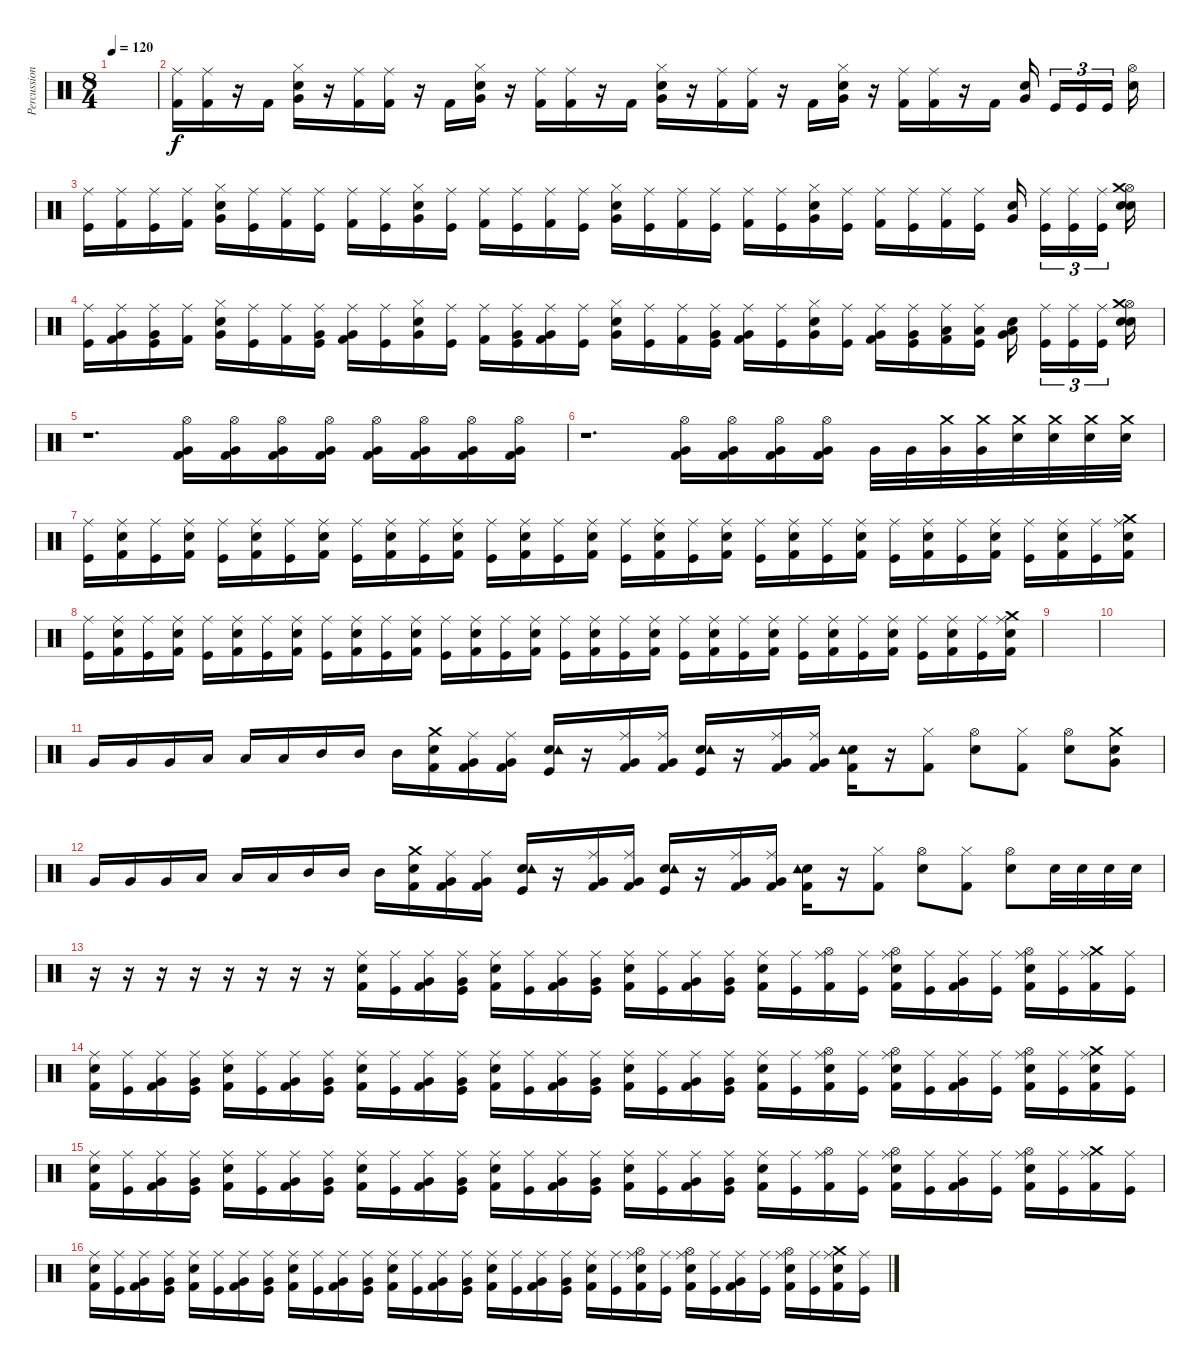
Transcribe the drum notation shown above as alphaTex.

\track ("Percussions" "Percussion") {instrument percussion}
\staff {score}
\articulation defaults
\ts (8 4)
\tempo 120
\clef neutral
\ks c
|
("Kick (hit) 2" "Ride (middle)").16 ("Kick (hit) 2" "Ride (middle)").16 r.16 "Kick (hit) 2".16 ("Electric Snare (hit)" "Very Low Tom (hit)" "Hi-Hat (closed)").16 r.16 ("Kick (hit) 2" "Ride (middle)").16 ("Kick (hit) 2" "Ride (middle)").16 r.16 "Kick (hit) 2".16 ("Electric Snare (hit)" "Very Low Tom (hit)" "Hi-Hat (closed)").16 r.16 ("Kick (hit) 2" "Ride (middle)").16 ("Kick (hit) 2" "Ride (middle)").16 r.16 "Kick (hit) 2".16 ("Electric Snare (hit)" "Very Low Tom (hit)" "Hi-Hat (closed)").16 r.16 ("Kick (hit) 2" "Ride (middle)").16 ("Kick (hit) 2" "Ride (middle)").16 r.16 "Kick (hit) 2".16 ("Electric Snare (hit)" "Very Low Tom (hit)" "Hi-Hat (closed)").16 r.16 ("Kick (hit) 2" "Ride (middle)").16 ("Kick (hit) 2" "Ride (middle)").16 r.16 "Kick (hit) 2".16 ("Electric Snare (hit)" "Very Low Tom (hit)").16 "Kick (hit)".16{tu (3 2)} "Kick (hit)".16{tu (3 2)} "Kick (hit)".16{tu (3 2)} ("Snare (hit) 2" "Hi-Hat (open)").16 |
("Kick (hit)" "Ride (middle)").16 ("Kick (hit) 2" "Ride (middle)").16 ("Kick (hit)" "Ride (middle)").16 ("Kick (hit) 2" "Ride (middle)").16 ("Electric Snare (hit)" "Very Low Tom (hit)" "Hi-Hat (closed)").16 ("Kick (hit)" "Ride (middle)").16 ("Kick (hit) 2" "Ride (middle)").16 ("Kick (hit)" "Ride (middle)").16 ("Kick (hit) 2" "Ride (middle)").16 ("Kick (hit)" "Ride (middle)").16 ("Electric Snare (hit)" "Very Low Tom (hit)" "Hi-Hat (closed)").16 ("Kick (hit)" "Ride (middle)").16 ("Kick (hit) 2" "Ride (middle)").16 ("Kick (hit)" "Ride (middle)").16 ("Kick (hit) 2" "Ride (middle)").16 ("Kick (hit)" "Ride (middle)").16 ("Electric Snare (hit)" "Very Low Tom (hit)" "Hi-Hat (closed)").16 ("Kick (hit)" "Ride (middle)").16 ("Kick (hit) 2" "Ride (middle)").16 ("Kick (hit)" "Ride (middle)").16 ("Kick (hit) 2" "Ride (middle)").16 ("Kick (hit)" "Ride (middle)").16 ("Electric Snare (hit)" "Very Low Tom (hit)" "Hi-Hat (closed)").16 ("Kick (hit)" "Ride (middle)").16 ("Kick (hit) 2" "Ride (middle)").16 ("Kick (hit)" "Ride (middle)").16 ("Kick (hit) 2" "Ride (middle)").16 ("Kick (hit)" "Ride (middle)").16 ("Electric Snare (hit)" "Very Low Tom (hit)").16 ("Kick (hit)" "Ride (middle)").16{tu (3 2)} ("Kick (hit)" "Ride (middle)").16{tu (3 2)} ("Kick (hit)" "Ride (middle)").16{tu (3 2)} ("Snare (hit) 2" "Hi-Hat (open)" "Electric Snare (hit)" "Crash medium (hit)").16 |
("Kick (hit)" "Ride (middle)").16 ("Kick (hit) 2" "Ride (middle)" "Very Low Tom (hit)").16 ("Kick (hit)" "Ride (middle)" "Very Low Tom (hit)").16 ("Kick (hit) 2" "Ride (middle)").16 ("Electric Snare (hit)" "Very Low Tom (hit)" "Hi-Hat (closed)").16 ("Kick (hit)" "Ride (middle)").16 ("Kick (hit) 2" "Ride (middle)").16 ("Kick (hit)" "Ride (middle)" "Very Low Tom (hit)").16 ("Kick (hit) 2" "Ride (middle)" "Very Low Tom (hit)").16 ("Kick (hit)" "Ride (middle)").16 ("Electric Snare (hit)" "Very Low Tom (hit)" "Hi-Hat (closed)").16 ("Kick (hit)" "Ride (middle)").16 ("Kick (hit) 2" "Ride (middle)").16 ("Kick (hit)" "Ride (middle)" "Very Low Tom (hit)").16 ("Kick (hit) 2" "Ride (middle)" "Very Low Tom (hit)").16 ("Kick (hit)" "Ride (middle)").16 ("Electric Snare (hit)" "Very Low Tom (hit)" "Hi-Hat (closed)").16 ("Kick (hit)" "Ride (middle)").16 ("Kick (hit) 2" "Ride (middle)").16 ("Kick (hit)" "Ride (middle)" "Very Low Tom (hit)").16 ("Kick (hit) 2" "Ride (middle)" "Very Low Tom (hit)").16 ("Kick (hit)" "Ride (middle)").16 ("Electric Snare (hit)" "Very Low Tom (hit)" "Hi-Hat (closed)").16 ("Kick (hit)" "Ride (middle)").16 ("Kick (hit) 2" "Ride (middle)" "Very Low Tom (hit)").16 ("Kick (hit)" "Ride (middle)" "Very Low Tom (hit)").16 ("Kick (hit) 2" "Ride (middle)" "Low Tom (hit)").16 ("Kick (hit)" "Ride (middle)" "Low Tom (hit)").16 ("Electric Snare (hit)" "Very Low Tom (hit)" "Low Tom (hit)").16 ("Kick (hit)" "Ride (middle)").16{tu (3 2)} ("Kick (hit)" "Ride (middle)").16{tu (3 2)} ("Kick (hit)" "Ride (middle)").16{tu (3 2)} ("Snare (hit) 2" "Hi-Hat (open)" "Electric Snare (hit)" "Crash medium (hit)").16 |
r.1{d} ("Very Low Tom (hit)" "Kick (hit) 2" "Hi-Hat (open)").16 ("Very Low Tom (hit)" "Kick (hit) 2" "Hi-Hat (open)").16 ("Very Low Tom (hit)" "Kick (hit) 2" "Hi-Hat (open)").16 ("Very Low Tom (hit)" "Kick (hit) 2" "Hi-Hat (open)").16 ("Very Low Tom (hit)" "Kick (hit) 2" "Hi-Hat (open)").16 ("Very Low Tom (hit)" "Kick (hit) 2" "Hi-Hat (open)").16 ("Very Low Tom (hit)" "Kick (hit) 2" "Hi-Hat (open)").16 ("Very Low Tom (hit)" "Kick (hit) 2" "Hi-Hat (open)").16 |
r.1{d} ("Very Low Tom (hit)" "Kick (hit) 2" "Hi-Hat (open)").16 ("Very Low Tom (hit)" "Kick (hit) 2" "Hi-Hat (open)").16 ("Very Low Tom (hit)" "Kick (hit) 2" "Hi-Hat (open)").16 ("Very Low Tom (hit)" "Kick (hit) 2" "Hi-Hat (open)").16 "Very Low Tom (hit)".32 "Very Low Tom (hit)".32 ("Very Low Tom (hit)" "Crash medium (hit)").32 ("Very Low Tom (hit)" "Crash medium (hit)").32 ("Electric Snare (hit)" "Crash medium (hit)").32 ("Electric Snare (hit)" "Crash medium (hit)").32 ("Electric Snare (hit)" "Crash medium (hit)").32 ("Electric Snare (hit)" "Crash medium (hit)").32 |
("Ride (middle)" "Kick (hit)").16 ("Ride (middle)" "Kick (hit) 2" "Electric Snare (hit)").16 ("Ride (middle)" "Kick (hit)").16 ("Ride (middle)" "Kick (hit) 2" "Electric Snare (hit)").16 ("Ride (middle)" "Kick (hit)").16 ("Ride (middle)" "Kick (hit) 2" "Electric Snare (hit)").16 ("Ride (middle)" "Kick (hit)").16 ("Ride (middle)" "Kick (hit) 2" "Electric Snare (hit)").16 ("Ride (middle)" "Kick (hit)").16 ("Ride (middle)" "Kick (hit) 2" "Electric Snare (hit)").16 ("Ride (middle)" "Kick (hit)").16 ("Ride (middle)" "Kick (hit) 2" "Electric Snare (hit)").16 ("Ride (middle)" "Kick (hit)").16 ("Ride (middle)" "Kick (hit) 2" "Electric Snare (hit)").16 ("Ride (middle)" "Kick (hit)").16 ("Ride (middle)" "Kick (hit) 2" "Electric Snare (hit)").16 ("Ride (middle)" "Kick (hit)").16 ("Ride (middle)" "Kick (hit) 2" "Electric Snare (hit)").16 ("Ride (middle)" "Kick (hit)").16 ("Ride (middle)" "Kick (hit) 2" "Electric Snare (hit)").16 ("Ride (middle)" "Kick (hit)").16 ("Ride (middle)" "Kick (hit) 2" "Electric Snare (hit)").16 ("Ride (middle)" "Kick (hit)").16 ("Ride (middle)" "Kick (hit) 2" "Electric Snare (hit)").16 ("Ride (middle)" "Kick (hit)").16 ("Ride (middle)" "Kick (hit) 2" "Electric Snare (hit)").16 ("Ride (middle)" "Kick (hit)").16 ("Ride (middle)" "Kick (hit) 2" "Electric Snare (hit)").16 ("Ride (middle)" "Kick (hit)").16 ("Ride (middle)" "Kick (hit) 2" "Electric Snare (hit)").16 ("Ride (middle)" "Kick (hit)").16 ("Ride (middle)" "Kick (hit) 2" "Electric Snare (hit)" "Crash medium (hit)").16 |
("Ride (middle)" "Kick (hit)").16 ("Ride (middle)" "Kick (hit) 2" "Electric Snare (hit)").16 ("Ride (middle)" "Kick (hit)").16 ("Ride (middle)" "Kick (hit) 2" "Electric Snare (hit)").16 ("Ride (middle)" "Kick (hit)").16 ("Ride (middle)" "Kick (hit) 2" "Electric Snare (hit)").16 ("Ride (middle)" "Kick (hit)").16 ("Ride (middle)" "Kick (hit) 2" "Electric Snare (hit)").16 ("Ride (middle)" "Kick (hit)").16 ("Ride (middle)" "Kick (hit) 2" "Electric Snare (hit)").16 ("Ride (middle)" "Kick (hit)").16 ("Ride (middle)" "Kick (hit) 2" "Electric Snare (hit)").16 ("Ride (middle)" "Kick (hit)").16 ("Ride (middle)" "Kick (hit) 2" "Electric Snare (hit)").16 ("Ride (middle)" "Kick (hit)").16 ("Ride (middle)" "Kick (hit) 2" "Electric Snare (hit)").16 ("Ride (middle)" "Kick (hit)").16 ("Ride (middle)" "Kick (hit) 2" "Electric Snare (hit)").16 ("Ride (middle)" "Kick (hit)").16 ("Ride (middle)" "Kick (hit) 2" "Electric Snare (hit)").16 ("Ride (middle)" "Kick (hit)").16 ("Ride (middle)" "Kick (hit) 2" "Electric Snare (hit)").16 ("Ride (middle)" "Kick (hit)").16 ("Ride (middle)" "Kick (hit) 2" "Electric Snare (hit)").16 ("Ride (middle)" "Kick (hit)").16 ("Ride (middle)" "Kick (hit) 2" "Electric Snare (hit)").16 ("Ride (middle)" "Kick (hit)").16 ("Ride (middle)" "Kick (hit) 2" "Electric Snare (hit)").16 ("Ride (middle)" "Kick (hit)").16 ("Ride (middle)" "Kick (hit) 2" "Electric Snare (hit)").16 ("Ride (middle)" "Kick (hit)").16 ("Ride (middle)" "Kick (hit) 2" "Electric Snare (hit)" "Crash medium (hit)").16 |
|
|
"Very Low Tom (hit)".16 "Very Low Tom (hit)".16 "Very Low Tom (hit)".16 "Low Tom (hit)".16 "Low Tom (hit)".16 "Low Tom (hit)".16 "Mid Tom (hit)".16 "Mid Tom (hit)".16 "Mid Tom (hit)".16 ("Crash medium (hit)" "Kick (hit) 2" "Electric Snare (hit)").16 ("Kick (hit) 2" "Ride (middle)" "Very Low Tom (hit)").16 ("Kick (hit) 2" "Ride (middle)" "Very Low Tom (hit)").16 ("Kick (hit)" "Electric Snare (hit)" "Tambourine (hit)").16 r.16 ("Kick (hit) 2" "Ride (middle)" "Very Low Tom (hit)").16 ("Kick (hit) 2" "Ride (middle)" "Very Low Tom (hit)").16 ("Kick (hit)" "Electric Snare (hit)" "Tambourine (hit)").16 r.16 ("Kick (hit) 2" "Ride (middle)" "Very Low Tom (hit)").16 ("Kick (hit) 2" "Ride (middle)" "Very Low Tom (hit)").16 ("Kick (hit) 2" "Electric Snare (hit)" "Tambourine (hit)").16 r.16 ("Kick (hit) 2" "Hi-Hat (closed)").8 ("Electric Snare (hit)" "Hi-Hat (open)").8 ("Kick (hit) 2" "Hi-Hat (closed)").8 ("Electric Snare (hit)" "Hi-Hat (open)").8 ("Snare (hit) 2" "Very Low Tom (hit)" "Crash medium (hit)").8 |
"Very Low Tom (hit)".16 "Very Low Tom (hit)".16 "Very Low Tom (hit)".16 "Low Tom (hit)".16 "Low Tom (hit)".16 "Low Tom (hit)".16 "Mid Tom (hit)".16 "Mid Tom (hit)".16 "Mid Tom (hit)".16 ("Crash medium (hit)" "Kick (hit) 2" "Electric Snare (hit)").16 ("Kick (hit) 2" "Ride (middle)" "Very Low Tom (hit)").16 ("Kick (hit) 2" "Ride (middle)" "Very Low Tom (hit)").16 ("Kick (hit)" "Electric Snare (hit)" "Tambourine (hit)").16 r.16 ("Kick (hit) 2" "Ride (middle)" "Very Low Tom (hit)").16 ("Kick (hit) 2" "Ride (middle)" "Very Low Tom (hit)").16 ("Kick (hit)" "Electric Snare (hit)" "Tambourine (hit)").16 r.16 ("Kick (hit) 2" "Ride (middle)" "Very Low Tom (hit)").16 ("Kick (hit) 2" "Ride (middle)" "Very Low Tom (hit)").16 ("Kick (hit) 2" "Electric Snare (hit)" "Tambourine (hit)").16 r.16 ("Kick (hit) 2" "Hi-Hat (closed)").8 ("Electric Snare (hit)" "Hi-Hat (open)").8 ("Kick (hit) 2" "Hi-Hat (closed)").8 ("Electric Snare (hit)" "Hi-Hat (open)").8 "Electric Snare (hit)".32 "Electric Snare (hit)".32 "Electric Snare (hit)".32 "Electric Snare (hit)".32 |
r.16 r.16 r.16 r.16 r.16 r.16 r.16 r.16 ("Kick (hit) 2" "Ride (middle)" "Electric Snare (hit)").16 ("Kick (hit)" "Ride (middle)").16 ("Kick (hit) 2" "Ride (middle)" "Very Low Tom (hit)").16 ("Kick (hit)" "Ride (middle)" "Very Low Tom (hit)").16 ("Kick (hit) 2" "Ride (middle)" "Electric Snare (hit)").16 ("Kick (hit)" "Ride (middle)").16 ("Kick (hit) 2" "Ride (middle)" "Very Low Tom (hit)").16 ("Kick (hit)" "Ride (middle)" "Very Low Tom (hit)").16 ("Kick (hit) 2" "Ride (middle)" "Electric Snare (hit)").16 ("Kick (hit)" "Ride (middle)").16 ("Kick (hit) 2" "Ride (middle)" "Very Low Tom (hit)").16 ("Kick (hit)" "Ride (middle)" "Very Low Tom (hit)").16 ("Kick (hit) 2" "Ride (middle)" "Electric Snare (hit)").16 ("Kick (hit)" "Ride (middle)").16 ("Kick (hit) 2" "Ride (middle)" "Hi-Hat (open)").16 ("Kick (hit)" "Ride (middle)").16 ("Kick (hit) 2" "Ride (middle)" "Electric Snare (hit)" "Hi-Hat (open)").16 ("Kick (hit)" "Ride (middle)").16 ("Kick (hit) 2" "Ride (middle)" "Very Low Tom (hit)").16 ("Kick (hit)" "Ride (middle)").16 ("Kick (hit) 2" "Ride (middle)" "Electric Snare (hit)" "Hi-Hat (open)").16 ("Kick (hit)" "Ride (middle)").16 ("Kick (hit) 2" "Ride (middle)" "Crash medium (hit)").16 ("Kick (hit)" "Ride (middle)").16 |
("Kick (hit) 2" "Ride (middle)" "Electric Snare (hit)").16 ("Kick (hit)" "Ride (middle)").16 ("Kick (hit) 2" "Ride (middle)" "Very Low Tom (hit)").16 ("Kick (hit)" "Ride (middle)" "Very Low Tom (hit)").16 ("Kick (hit) 2" "Ride (middle)" "Electric Snare (hit)").16 ("Kick (hit)" "Ride (middle)").16 ("Kick (hit) 2" "Ride (middle)" "Very Low Tom (hit)").16 ("Kick (hit)" "Ride (middle)" "Very Low Tom (hit)").16 ("Kick (hit) 2" "Ride (middle)" "Electric Snare (hit)").16 ("Kick (hit)" "Ride (middle)").16 ("Kick (hit) 2" "Ride (middle)" "Very Low Tom (hit)").16 ("Kick (hit)" "Ride (middle)" "Very Low Tom (hit)").16 ("Kick (hit) 2" "Ride (middle)" "Electric Snare (hit)").16 ("Kick (hit)" "Ride (middle)").16 ("Kick (hit) 2" "Ride (middle)" "Very Low Tom (hit)").16 ("Kick (hit)" "Ride (middle)" "Very Low Tom (hit)").16 ("Kick (hit) 2" "Ride (middle)" "Electric Snare (hit)").16 ("Kick (hit)" "Ride (middle)").16 ("Kick (hit) 2" "Ride (middle)" "Very Low Tom (hit)").16 ("Kick (hit)" "Ride (middle)" "Very Low Tom (hit)").16 ("Kick (hit) 2" "Ride (middle)" "Electric Snare (hit)").16 ("Kick (hit)" "Ride (middle)").16 ("Kick (hit) 2" "Ride (middle)" "Hi-Hat (open)" "Electric Snare (hit)").16 ("Kick (hit)" "Ride (middle)").16 ("Kick (hit) 2" "Ride (middle)" "Electric Snare (hit)" "Hi-Hat (open)").16 ("Kick (hit)" "Ride (middle)").16 ("Kick (hit) 2" "Ride (middle)" "Very Low Tom (hit)").16 ("Kick (hit)" "Ride (middle)").16 ("Kick (hit) 2" "Ride (middle)" "Electric Snare (hit)" "Hi-Hat (open)").16 ("Kick (hit)" "Ride (middle)").16 ("Kick (hit) 2" "Ride (middle)" "Crash medium (hit)" "Electric Snare (hit)").16 ("Kick (hit)" "Ride (middle)").16 |
("Kick (hit) 2" "Ride (middle)" "Electric Snare (hit)").16 ("Kick (hit)" "Ride (middle)").16 ("Kick (hit) 2" "Ride (middle)" "Very Low Tom (hit)").16 ("Kick (hit)" "Ride (middle)" "Very Low Tom (hit)").16 ("Kick (hit) 2" "Ride (middle)" "Electric Snare (hit)").16 ("Kick (hit)" "Ride (middle)").16 ("Kick (hit) 2" "Ride (middle)" "Very Low Tom (hit)").16 ("Kick (hit)" "Ride (middle)" "Very Low Tom (hit)").16 ("Kick (hit) 2" "Ride (middle)" "Electric Snare (hit)").16 ("Kick (hit)" "Ride (middle)").16 ("Kick (hit) 2" "Ride (middle)" "Very Low Tom (hit)").16 ("Kick (hit)" "Ride (middle)" "Very Low Tom (hit)").16 ("Kick (hit) 2" "Ride (middle)" "Electric Snare (hit)").16 ("Kick (hit)" "Ride (middle)").16 ("Kick (hit) 2" "Ride (middle)" "Very Low Tom (hit)").16 ("Kick (hit)" "Ride (middle)" "Very Low Tom (hit)").16 ("Kick (hit) 2" "Ride (middle)" "Electric Snare (hit)").16 ("Kick (hit)" "Ride (middle)").16 ("Kick (hit) 2" "Ride (middle)" "Very Low Tom (hit)").16 ("Kick (hit)" "Ride (middle)" "Very Low Tom (hit)").16 ("Kick (hit) 2" "Ride (middle)" "Electric Snare (hit)").16 ("Kick (hit)" "Ride (middle)").16 ("Kick (hit) 2" "Ride (middle)" "Hi-Hat (open)").16 ("Kick (hit)" "Ride (middle)").16 ("Kick (hit) 2" "Ride (middle)" "Electric Snare (hit)" "Hi-Hat (open)").16 ("Kick (hit)" "Ride (middle)").16 ("Kick (hit) 2" "Ride (middle)" "Very Low Tom (hit)").16 ("Kick (hit)" "Ride (middle)").16 ("Kick (hit) 2" "Ride (middle)" "Electric Snare (hit)" "Hi-Hat (open)").16 ("Kick (hit)" "Ride (middle)").16 ("Kick (hit) 2" "Ride (middle)" "Crash medium (hit)").16 ("Kick (hit)" "Ride (middle)").16 |
("Kick (hit) 2" "Ride (middle)" "Electric Snare (hit)").16 ("Kick (hit)" "Ride (middle)").16 ("Kick (hit) 2" "Ride (middle)" "Very Low Tom (hit)").16 ("Kick (hit)" "Ride (middle)" "Very Low Tom (hit)").16 ("Kick (hit) 2" "Ride (middle)" "Electric Snare (hit)").16 ("Kick (hit)" "Ride (middle)").16 ("Kick (hit) 2" "Ride (middle)" "Very Low Tom (hit)").16 ("Kick (hit)" "Ride (middle)" "Very Low Tom (hit)").16 ("Kick (hit) 2" "Ride (middle)" "Electric Snare (hit)").16 ("Kick (hit)" "Ride (middle)").16 ("Kick (hit) 2" "Ride (middle)" "Very Low Tom (hit)").16 ("Kick (hit)" "Ride (middle)" "Very Low Tom (hit)").16 ("Kick (hit) 2" "Ride (middle)" "Electric Snare (hit)").16 ("Kick (hit)" "Ride (middle)").16 ("Kick (hit) 2" "Ride (middle)" "Very Low Tom (hit)").16 ("Kick (hit)" "Ride (middle)" "Very Low Tom (hit)").16 ("Kick (hit) 2" "Ride (middle)" "Electric Snare (hit)").16 ("Kick (hit)" "Ride (middle)").16 ("Kick (hit) 2" "Ride (middle)" "Very Low Tom (hit)").16 ("Kick (hit)" "Ride (middle)" "Very Low Tom (hit)").16 ("Kick (hit) 2" "Ride (middle)" "Electric Snare (hit)").16 ("Kick (hit)" "Ride (middle)").16 ("Kick (hit) 2" "Ride (middle)" "Hi-Hat (open)" "Electric Snare (hit)").16 ("Kick (hit)" "Ride (middle)").16 ("Kick (hit) 2" "Ride (middle)" "Electric Snare (hit)" "Hi-Hat (open)").16 ("Kick (hit)" "Ride (middle)").16 ("Kick (hit) 2" "Ride (middle)" "Very Low Tom (hit)").16 ("Kick (hit)" "Ride (middle)").16 ("Kick (hit) 2" "Ride (middle)" "Electric Snare (hit)" "Hi-Hat (open)").16 ("Kick (hit)" "Ride (middle)").16 ("Kick (hit) 2" "Ride (middle)" "Crash medium (hit)" "Electric Snare (hit)").16 ("Kick (hit)" "Ride (middle)").16
